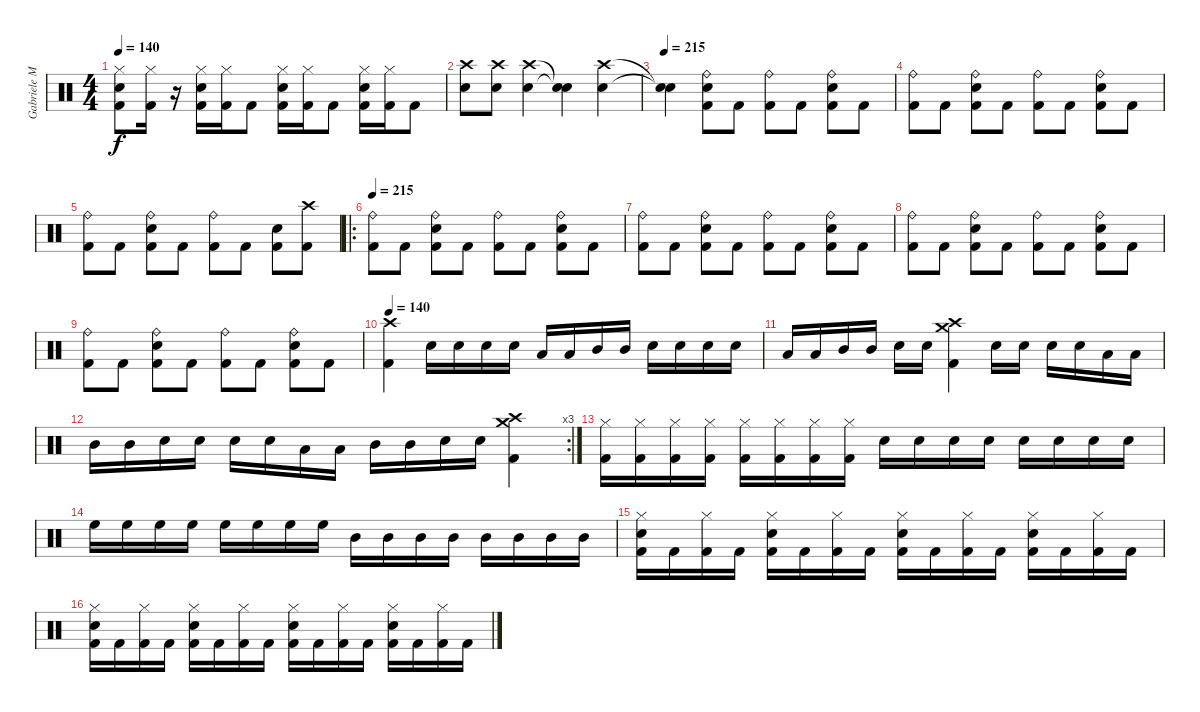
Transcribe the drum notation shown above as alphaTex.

\track ("Gabriele Malatesta" "Gabriele M") {instrument percussion}
\staff {score}
\articulation defaults
\ts (4 4)
\tempo 140
\clef neutral
\ks c
("Hi-Hat (closed)" "Electric Snare (hit)" "Kick (hit) 2").8{dy f} ("Hi-Hat (closed)" "Kick (hit) 2").16 r.16 ("Hi-Hat (closed)" "Electric Snare (hit)" "Kick (hit) 2").16 ("Hi-Hat (closed)" "Kick (hit) 2").16 "Kick (hit) 2".8 ("Hi-Hat (closed)" "Electric Snare (hit)" "Kick (hit) 2").16 ("Hi-Hat (closed)" "Kick (hit) 2").16 "Kick (hit) 2".8 ("Hi-Hat (closed)" "Electric Snare (hit)" "Kick (hit) 2").16 ("Hi-Hat (closed)" "Kick (hit) 2").16 "Kick (hit) 2".8 |
("Crash high (hit)" "Electric Snare (hit)").8 ("Crash high (hit)" "Electric Snare (hit)").8 ("Crash high (hit)" "Electric Snare (hit)").4 ("Snare (hit)"{t} "Snare (hit)"{t}).4 ("Crash high (hit)" "Electric Snare (hit)").4 |
\tempo 215
("Snare (hit)"{t} "Snare (hit)"{t}).4 ("Ride (bell)" "Electric Snare (hit)" "Kick (hit) 2").8 "Kick (hit) 2".8 ("Ride (bell)" "Kick (hit) 2").8 "Kick (hit) 2".8 ("Ride (bell)" "Electric Snare (hit)" "Kick (hit) 2").8 "Kick (hit) 2".8 |
("Ride (bell)" "Kick (hit) 2").8 "Kick (hit) 2".8 ("Ride (bell)" "Electric Snare (hit)" "Kick (hit) 2").8 "Kick (hit) 2".8 ("Ride (bell)" "Kick (hit) 2").8 "Kick (hit) 2".8 ("Ride (bell)" "Electric Snare (hit)" "Kick (hit) 2").8 "Kick (hit) 2".8 |
("Ride (bell)" "Kick (hit) 2").8 "Kick (hit) 2".8 ("Ride (bell)" "Electric Snare (hit)" "Kick (hit) 2").8 "Kick (hit) 2".8 ("Ride (bell)" "Kick (hit) 2").8 "Kick (hit) 2".8 ("Electric Snare (hit)" "Kick (hit) 2").8 ("Crash high (hit)" "Kick (hit) 2").8 |
\ro
\tempo 215
("Ride (bell)" "Kick (hit) 2").8 "Kick (hit) 2".8 ("Ride (bell)" "Electric Snare (hit)" "Kick (hit) 2").8 "Kick (hit) 2".8 ("Ride (bell)" "Kick (hit) 2").8 "Kick (hit) 2".8 ("Ride (bell)" "Electric Snare (hit)" "Kick (hit) 2").8 "Kick (hit) 2".8 |
("Ride (bell)" "Kick (hit) 2").8 "Kick (hit) 2".8 ("Ride (bell)" "Electric Snare (hit)" "Kick (hit) 2").8 "Kick (hit) 2".8 ("Ride (bell)" "Kick (hit) 2").8 "Kick (hit) 2".8 ("Ride (bell)" "Electric Snare (hit)" "Kick (hit) 2").8 "Kick (hit) 2".8 |
("Ride (bell)" "Kick (hit) 2").8 "Kick (hit) 2".8 ("Ride (bell)" "Electric Snare (hit)" "Kick (hit) 2").8 "Kick (hit) 2".8 ("Ride (bell)" "Kick (hit) 2").8 "Kick (hit) 2".8 ("Ride (bell)" "Electric Snare (hit)" "Kick (hit) 2").8 "Kick (hit) 2".8 |
("Ride (bell)" "Kick (hit) 2").8 "Kick (hit) 2".8 ("Ride (bell)" "Electric Snare (hit)" "Kick (hit) 2").8 "Kick (hit) 2".8 ("Ride (bell)" "Kick (hit) 2").8 "Kick (hit) 2".8 ("Ride (bell)" "Electric Snare (hit)" "Kick (hit) 2").8 "Kick (hit) 2".8 |
\tempo 140
("Crash high (hit)" "Kick (hit) 2").4 "Electric Snare (hit)".16 "Electric Snare (hit)".16 "Electric Snare (hit)".16 "Electric Snare (hit)".16 "Low Tom (hit)".16 "Low Tom (hit)".16 "Mid Tom (hit)".16 "Mid Tom (hit)".16 "Electric Snare (hit)".16 "Electric Snare (hit)".16 "Electric Snare (hit)".16 "Electric Snare (hit)".16 |
"Low Tom (hit)".16 "Low Tom (hit)".16 "Mid Tom (hit)".16 "Mid Tom (hit)".16 "Electric Snare (hit)".16 "Electric Snare (hit)".16 ("Crash medium (hit)" "Crash high (hit)" "Kick (hit) 2").4 "Electric Snare (hit)".16 "Electric Snare (hit)".16 "Electric Snare (hit)".16 "Electric Snare (hit)".16 "Low Tom (hit)".16 "Low Tom (hit)".16 |
\rc 3 "Mid Tom (hit)".16 "Mid Tom (hit)".16 "Electric Snare (hit)".16 "Electric Snare (hit)".16 "Electric Snare (hit)".16 "Electric Snare (hit)".16 "Low Tom (hit)".16 "Low Tom (hit)".16 "Mid Tom (hit)".16 "Mid Tom (hit)".16 "Electric Snare (hit)".16 "Electric Snare (hit)".16
("Crash medium (hit)" "Crash high (hit)" "Kick (hit) 2").4 |
("Hi-Hat (closed)" "Kick (hit) 2").16 ("Hi-Hat (closed)" "Kick (hit) 2").16 ("Hi-Hat (closed)" "Kick (hit) 2").16 ("Hi-Hat (closed)" "Kick (hit) 2").16 ("Hi-Hat (closed)" "Kick (hit) 2").16 ("Hi-Hat (closed)" "Kick (hit) 2").16 ("Hi-Hat (closed)" "Kick (hit) 2").16 ("Hi-Hat (closed)" "Kick (hit) 2").16 "Electric Snare (hit)".16 "Electric Snare (hit)".16 "Electric Snare (hit)".16 "Electric Snare (hit)".16 "Electric Snare (hit)".16 "Electric Snare (hit)".16 "Electric Snare (hit)".16 "Electric Snare (hit)".16 |
"High Floor Tom (hit)".16 "High Floor Tom (hit)".16 "High Floor Tom (hit)".16 "High Floor Tom (hit)".16 "High Floor Tom (hit)".16 "High Floor Tom (hit)".16 "High Floor Tom (hit)".16 "High Floor Tom (hit)".16 "Mid Tom (hit)".16 "Mid Tom (hit)".16 "Mid Tom (hit)".16 "Mid Tom (hit)".16 "Mid Tom (hit)".16 "Mid Tom (hit)".16 "Mid Tom (hit)".16 "Mid Tom (hit)".16 |
("Hi-Hat (closed)" "Electric Snare (hit)" "Kick (hit) 2").16 "Kick (hit) 2".16 ("Hi-Hat (closed)" "Kick (hit) 2").16 "Kick (hit) 2".16 ("Hi-Hat (closed)" "Electric Snare (hit)" "Kick (hit) 2").16 "Kick (hit) 2".16 ("Hi-Hat (closed)" "Kick (hit) 2").16 "Kick (hit) 2".16 ("Hi-Hat (closed)" "Electric Snare (hit)" "Kick (hit) 2").16 "Kick (hit) 2".16 ("Hi-Hat (closed)" "Kick (hit) 2").16 "Kick (hit) 2".16 ("Hi-Hat (closed)" "Electric Snare (hit)" "Kick (hit) 2").16 "Kick (hit) 2".16 ("Hi-Hat (closed)" "Kick (hit) 2").16 "Kick (hit) 2".16 |
("Hi-Hat (closed)" "Electric Snare (hit)" "Kick (hit) 2").16 "Kick (hit) 2".16 ("Hi-Hat (closed)" "Kick (hit) 2").16 "Kick (hit) 2".16 ("Hi-Hat (closed)" "Electric Snare (hit)" "Kick (hit) 2").16 "Kick (hit) 2".16 ("Hi-Hat (closed)" "Kick (hit) 2").16 "Kick (hit) 2".16 ("Hi-Hat (closed)" "Electric Snare (hit)" "Kick (hit) 2").16 "Kick (hit) 2".16 ("Hi-Hat (closed)" "Kick (hit) 2").16 "Kick (hit) 2".16 ("Hi-Hat (closed)" "Electric Snare (hit)" "Kick (hit) 2").16 "Kick (hit) 2".16 ("Hi-Hat (closed)" "Kick (hit) 2").16 "Kick (hit) 2".16
